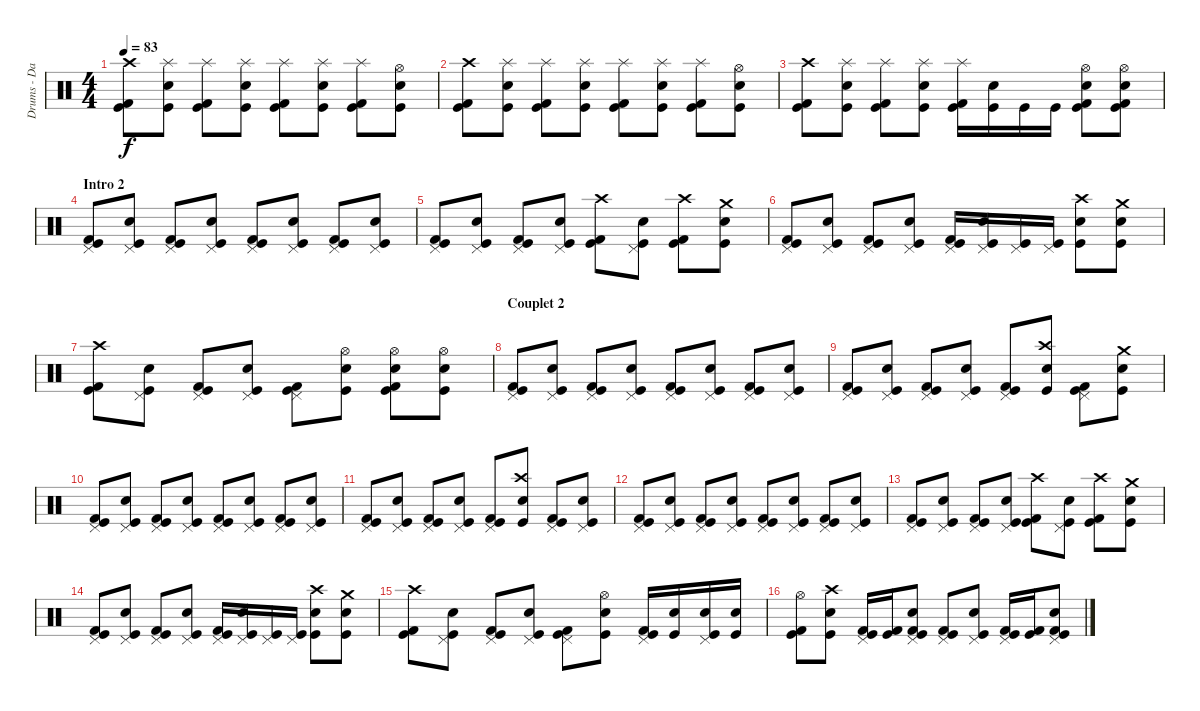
\track ("Drums - Daniel Zimmermann" "Drums - Da") {instrument percussion}
\staff {score}
\articulation defaults
\ts (4 4)
\tempo 83
\clef neutral
\ks c
("Kick (hit)" "Kick (hit) 2" "Crash high (hit)").8{dy f} ("Kick (hit)" "Electric Snare (hit)" "Splash (hit)").8 ("Kick (hit)" "Kick (hit) 2" "Splash (hit)").8 ("Kick (hit)" "Electric Snare (hit)" "Splash (hit)").8 ("Kick (hit)" "Kick (hit) 2" "Splash (hit)").8 ("Kick (hit)" "Electric Snare (hit)" "Splash (hit)").8 ("Kick (hit)" "Kick (hit) 2" "Splash (hit)").8 ("Kick (hit)" "Electric Snare (hit)" "Hi-Hat (open)").8 |
("Kick (hit)" "Kick (hit) 2" "Crash high (hit)").8 ("Kick (hit)" "Electric Snare (hit)" "Splash (hit)").8 ("Kick (hit)" "Kick (hit) 2" "Splash (hit)").8 ("Kick (hit)" "Electric Snare (hit)" "Splash (hit)").8 ("Kick (hit)" "Kick (hit) 2" "Splash (hit)").8 ("Kick (hit)" "Electric Snare (hit)" "Splash (hit)").8 ("Kick (hit)" "Kick (hit) 2" "Splash (hit)").8 ("Kick (hit)" "Electric Snare (hit)" "Hi-Hat (open)").8 |
("Kick (hit)" "Kick (hit) 2" "Crash high (hit)").8 ("Kick (hit)" "Electric Snare (hit)" "Splash (hit)").8 ("Kick (hit)" "Kick (hit) 2" "Splash (hit)").8 ("Kick (hit)" "Electric Snare (hit)" "Splash (hit)").8 ("Kick (hit)" "Kick (hit) 2" "Splash (hit)").16 ("Kick (hit)" "Electric Snare (hit)").16 "Kick (hit)".16 "Kick (hit)".16 ("Kick (hit)" "Kick (hit) 2" "Electric Snare (hit)" "Hi-Hat (open)").8 ("Kick (hit)" "Kick (hit) 2" "Electric Snare (hit)" "Hi-Hat (open)").8 |
\section ("" "Intro 2")
("Kick (hit)" "Kick (hit) 2" "Pedal Hi-Hat (hit)").8 ("Kick (hit)" "Electric Snare (hit)" "Pedal Hi-Hat (hit)").8 ("Kick (hit)" "Kick (hit) 2" "Pedal Hi-Hat (hit)").8 ("Kick (hit)" "Electric Snare (hit)" "Pedal Hi-Hat (hit)").8 ("Kick (hit)" "Kick (hit) 2" "Pedal Hi-Hat (hit)").8 ("Kick (hit)" "Electric Snare (hit)" "Pedal Hi-Hat (hit)").8 ("Kick (hit)" "Kick (hit) 2" "Pedal Hi-Hat (hit)").8 ("Kick (hit)" "Electric Snare (hit)" "Pedal Hi-Hat (hit)").8 |
("Kick (hit)" "Kick (hit) 2" "Pedal Hi-Hat (hit)").8 ("Kick (hit)" "Electric Snare (hit)" "Pedal Hi-Hat (hit)").8 ("Kick (hit)" "Kick (hit) 2" "Pedal Hi-Hat (hit)").8 ("Kick (hit)" "Electric Snare (hit)" "Pedal Hi-Hat (hit)").8 ("Kick (hit)" "Kick (hit) 2" "Crash high (hit)").8 ("Kick (hit)" "Electric Snare (hit)" "Pedal Hi-Hat (hit)").8 ("Kick (hit)" "Kick (hit) 2" "Crash high (hit)").8 ("Kick (hit)" "Electric Snare (hit)" "Crash medium (hit)").8 |
("Kick (hit)" "Kick (hit) 2" "Pedal Hi-Hat (hit)").8 ("Kick (hit)" "Electric Snare (hit)" "Pedal Hi-Hat (hit)").8 ("Kick (hit)" "Kick (hit) 2" "Pedal Hi-Hat (hit)").8 ("Kick (hit)" "Electric Snare (hit)" "Pedal Hi-Hat (hit)").8 ("Kick (hit)" "Kick (hit) 2" "Pedal Hi-Hat (hit)").16 ("Kick (hit)" "Electric Snare (hit)" "Pedal Hi-Hat (hit)").16 ("Kick (hit)" "Pedal Hi-Hat (hit)").16 ("Kick (hit)" "Pedal Hi-Hat (hit)").16 ("Kick (hit)" "Electric Snare (hit)" "Crash high (hit)").8 ("Kick (hit)" "Electric Snare (hit)" "Crash medium (hit)").8 |
("Kick (hit)" "Kick (hit) 2" "Crash high (hit)").8 ("Kick (hit)" "Electric Snare (hit)" "Pedal Hi-Hat (hit)").8 ("Kick (hit)" "Kick (hit) 2" "Pedal Hi-Hat (hit)").8 ("Kick (hit)" "Electric Snare (hit)" "Pedal Hi-Hat (hit)").8 ("Kick (hit)" "Kick (hit) 2" "Pedal Hi-Hat (hit)").8 ("Kick (hit)" "Electric Snare (hit)" "Hi-Hat (open)").8 ("Kick (hit)" "Kick (hit) 2" "Electric Snare (hit)" "Hi-Hat (open)").8 ("Kick (hit)" "Electric Snare (hit)" "Hi-Hat (open)").8 |
\section ("" "Couplet 2")
("Kick (hit)" "Kick (hit) 2" "Pedal Hi-Hat (hit)").8 ("Kick (hit)" "Electric Snare (hit)" "Pedal Hi-Hat (hit)").8 ("Kick (hit)" "Kick (hit) 2" "Pedal Hi-Hat (hit)").8 ("Kick (hit)" "Electric Snare (hit)" "Pedal Hi-Hat (hit)").8 ("Kick (hit)" "Kick (hit) 2" "Pedal Hi-Hat (hit)").8 ("Kick (hit)" "Electric Snare (hit)" "Pedal Hi-Hat (hit)").8 ("Kick (hit)" "Kick (hit) 2" "Pedal Hi-Hat (hit)").8 ("Kick (hit)" "Electric Snare (hit)" "Pedal Hi-Hat (hit)").8 |
("Kick (hit)" "Kick (hit) 2" "Pedal Hi-Hat (hit)").8 ("Kick (hit)" "Electric Snare (hit)" "Pedal Hi-Hat (hit)").8 ("Kick (hit)" "Kick (hit) 2" "Pedal Hi-Hat (hit)").8 ("Kick (hit)" "Electric Snare (hit)" "Pedal Hi-Hat (hit)").8 ("Kick (hit)" "Kick (hit) 2" "Pedal Hi-Hat (hit)").8 ("Kick (hit)" "Electric Snare (hit)" "Crash high (hit)").8 ("Kick (hit)" "Kick (hit) 2" "Pedal Hi-Hat (hit)").8 ("Kick (hit)" "Electric Snare (hit)" "Crash medium (hit)").8 |
("Kick (hit)" "Kick (hit) 2" "Pedal Hi-Hat (hit)").8 ("Kick (hit)" "Electric Snare (hit)" "Pedal Hi-Hat (hit)").8 ("Kick (hit)" "Kick (hit) 2" "Pedal Hi-Hat (hit)").8 ("Kick (hit)" "Electric Snare (hit)" "Pedal Hi-Hat (hit)").8 ("Kick (hit)" "Kick (hit) 2" "Pedal Hi-Hat (hit)").8 ("Kick (hit)" "Electric Snare (hit)" "Pedal Hi-Hat (hit)").8 ("Kick (hit)" "Kick (hit) 2" "Pedal Hi-Hat (hit)").8 ("Kick (hit)" "Electric Snare (hit)" "Pedal Hi-Hat (hit)").8 |
("Kick (hit)" "Kick (hit) 2" "Pedal Hi-Hat (hit)").8 ("Kick (hit)" "Electric Snare (hit)" "Pedal Hi-Hat (hit)").8 ("Kick (hit)" "Kick (hit) 2" "Pedal Hi-Hat (hit)").8 ("Kick (hit)" "Electric Snare (hit)" "Pedal Hi-Hat (hit)").8 ("Kick (hit)" "Kick (hit) 2" "Pedal Hi-Hat (hit)").8 ("Kick (hit)" "Electric Snare (hit)" "Crash high (hit)").8 ("Kick (hit)" "Kick (hit) 2" "Pedal Hi-Hat (hit)").8 ("Kick (hit)" "Electric Snare (hit)" "Pedal Hi-Hat (hit)").8 |
("Kick (hit)" "Kick (hit) 2" "Pedal Hi-Hat (hit)").8 ("Kick (hit)" "Electric Snare (hit)" "Pedal Hi-Hat (hit)").8 ("Kick (hit)" "Kick (hit) 2" "Pedal Hi-Hat (hit)").8 ("Kick (hit)" "Electric Snare (hit)" "Pedal Hi-Hat (hit)").8 ("Kick (hit)" "Kick (hit) 2" "Pedal Hi-Hat (hit)").8 ("Kick (hit)" "Electric Snare (hit)" "Pedal Hi-Hat (hit)").8 ("Kick (hit)" "Kick (hit) 2" "Pedal Hi-Hat (hit)").8 ("Kick (hit)" "Electric Snare (hit)" "Pedal Hi-Hat (hit)").8 |
("Kick (hit)" "Kick (hit) 2" "Pedal Hi-Hat (hit)").8 ("Kick (hit)" "Electric Snare (hit)" "Pedal Hi-Hat (hit)").8 ("Kick (hit)" "Kick (hit) 2" "Pedal Hi-Hat (hit)").8 ("Kick (hit)" "Electric Snare (hit)" "Pedal Hi-Hat (hit)").8 ("Kick (hit)" "Kick (hit) 2" "Crash high (hit)").8 ("Kick (hit)" "Electric Snare (hit)" "Pedal Hi-Hat (hit)").8 ("Kick (hit)" "Kick (hit) 2" "Crash high (hit)").8 ("Kick (hit)" "Electric Snare (hit)" "Crash medium (hit)").8 |
("Kick (hit)" "Kick (hit) 2" "Pedal Hi-Hat (hit)").8 ("Kick (hit)" "Electric Snare (hit)" "Pedal Hi-Hat (hit)").8 ("Kick (hit)" "Kick (hit) 2" "Pedal Hi-Hat (hit)").8 ("Kick (hit)" "Electric Snare (hit)" "Pedal Hi-Hat (hit)").8 ("Kick (hit)" "Kick (hit) 2" "Pedal Hi-Hat (hit)").16 ("Kick (hit)" "Electric Snare (hit)" "Pedal Hi-Hat (hit)").16 ("Kick (hit)" "Pedal Hi-Hat (hit)").16 ("Kick (hit)" "Pedal Hi-Hat (hit)").16 ("Kick (hit)" "Electric Snare (hit)" "Crash high (hit)").8 ("Kick (hit)" "Electric Snare (hit)" "Crash medium (hit)").8 |
("Kick (hit)" "Kick (hit) 2" "Crash high (hit)").8 ("Kick (hit)" "Electric Snare (hit)" "Pedal Hi-Hat (hit)").8 ("Kick (hit)" "Kick (hit) 2" "Pedal Hi-Hat (hit)").8 ("Kick (hit)" "Electric Snare (hit)" "Pedal Hi-Hat (hit)").8 ("Kick (hit)" "Kick (hit) 2" "Pedal Hi-Hat (hit)").8 ("Kick (hit)" "Electric Snare (hit)" "Hi-Hat (open)").8 ("Kick (hit)" "Kick (hit) 2" "Pedal Hi-Hat (hit)").16 ("Kick (hit)" "Electric Snare (hit)").16 ("Kick (hit)" "Electric Snare (hit)" "Pedal Hi-Hat (hit)").16 ("Kick (hit)" "Electric Snare (hit)").16 |
("Kick (hit)" "Kick (hit) 2" "Hi-Hat (open)").8 ("Kick (hit)" "Electric Snare (hit)" "Crash high (hit)").8 ("Kick (hit)" "Kick (hit) 2" "Pedal Hi-Hat (hit)").16 ("Kick (hit)" "Kick (hit) 2").16 ("Kick (hit)" "Kick (hit) 2" "Electric Snare (hit)" "Pedal Hi-Hat (hit)").8 ("Kick (hit)" "Kick (hit) 2" "Pedal Hi-Hat (hit)").8 ("Kick (hit)" "Electric Snare (hit)" "Pedal Hi-Hat (hit)").8 ("Kick (hit)" "Kick (hit) 2" "Pedal Hi-Hat (hit)").16 ("Kick (hit)" "Kick (hit) 2").16 ("Kick (hit)" "Kick (hit) 2" "Electric Snare (hit)" "Pedal Hi-Hat (hit)").8
